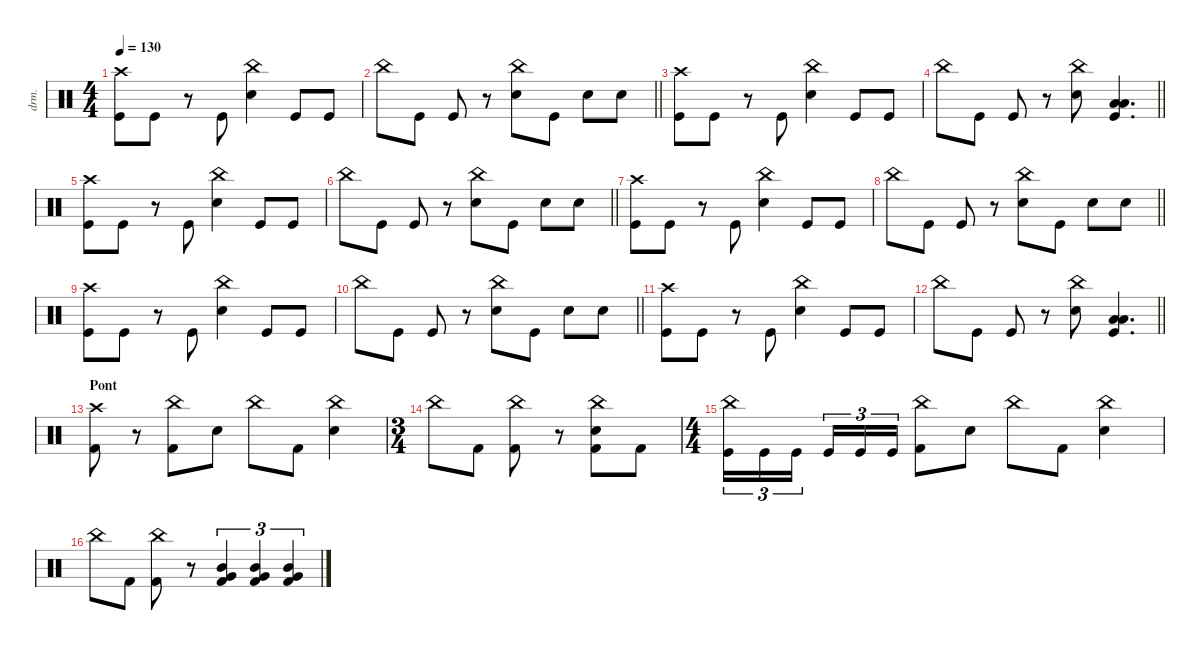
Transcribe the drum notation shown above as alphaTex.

\defaultSystemsLayout 4
\hideDynamics
\bracketExtendMode nobrackets
\otherSystemsTrackNameOrientation horizontal
\track ("Manouche" "drm.") {instrument percussion}
\staff {score}
\articulation defaults
\ts (4 4)
\tempo 130
\clef neutral
\ks c
("Crash high (hit)" "Kick (hit)").8{dy f beam Down} "Kick (hit)".8{beam Down} r.8{beam Down} "Kick (hit)".8{beam Up} ("China (hit)" "Snare (hit) 2").4{beam Down} "Kick (hit)".8{beam Up} "Kick (hit)".8{beam Up} |
\barLineRight lightlight "China (hit)".8{beam Down} "Kick (hit)".8{beam Down} "Kick (hit)".8{beam Up}
r.8{beam Up} ("China (hit)" "Snare (hit) 2").8{beam Down} "Kick (hit)".8{beam Down} "Snare (hit) 2".8{beam Down} "Snare (hit) 2".8{beam Down} |
("Crash high (hit)" "Kick (hit)").8{beam Down} "Kick (hit)".8{beam Down} r.8{beam Down} "Kick (hit)".8{beam Up} ("China (hit)" "Snare (hit) 2").4{beam Down} "Kick (hit)".8{beam Up} "Kick (hit)".8{beam Up} |
\barLineRight lightlight "China (hit)".8{beam Down} "Kick (hit)".8{beam Down} "Kick (hit)".8{beam Up}
r.8{beam Up} ("China (hit)" "Snare (hit) 2").8{beam Down} ("Low Tom (hit)" "Kick (hit)" "Low Floor Tom (hit)").4{d dy ff beam Up} |
("Crash high (hit)" "Kick (hit)").8{dy f beam Down} "Kick (hit)".8{beam Down} r.8{beam Down} "Kick (hit)".8{beam Up} ("China (hit)" "Snare (hit) 2").4{beam Down} "Kick (hit)".8{beam Up} "Kick (hit)".8{beam Up} |
\barLineRight lightlight "China (hit)".8{beam Down} "Kick (hit)".8{beam Down} "Kick (hit)".8{beam Up}
r.8{beam Up} ("China (hit)" "Snare (hit) 2").8{beam Down} "Kick (hit)".8{beam Down} "Snare (hit) 2".8{beam Down} "Snare (hit) 2".8{beam Down} |
("Crash high (hit)" "Kick (hit)").8{beam Down} "Kick (hit)".8{beam Down} r.8{beam Down} "Kick (hit)".8{beam Up} ("China (hit)" "Snare (hit) 2").4{beam Down} "Kick (hit)".8{beam Up} "Kick (hit)".8{beam Up} |
\barLineRight lightlight "China (hit)".8{beam Down} "Kick (hit)".8{beam Down} "Kick (hit)".8{beam Up}
r.8{beam Up} ("China (hit)" "Snare (hit) 2").8{beam Down} "Kick (hit)".8{beam Down} "Snare (hit) 2".8{beam Down} "Snare (hit) 2".8{beam Down} |
("Crash high (hit)" "Kick (hit)").8{beam Down} "Kick (hit)".8{beam Down} r.8{beam Down} "Kick (hit)".8{beam Up} ("China (hit)" "Snare (hit) 2").4{beam Down} "Kick (hit)".8{beam Up} "Kick (hit)".8{beam Up} |
\barLineRight lightlight "China (hit)".8{beam Down} "Kick (hit)".8{beam Down} "Kick (hit)".8{beam Up}
r.8{beam Up} ("China (hit)" "Snare (hit) 2").8{beam Down} "Kick (hit)".8{beam Down} "Snare (hit) 2".8{beam Down} "Snare (hit) 2".8{beam Down} |
("Crash high (hit)" "Kick (hit)").8{beam Down} "Kick (hit)".8{beam Down} r.8{beam Down} "Kick (hit)".8{beam Up} ("China (hit)" "Snare (hit) 2").4{beam Down} "Kick (hit)".8{beam Up} "Kick (hit)".8{beam Up} |
\barLineRight lightlight "China (hit)".8{beam Down} "Kick (hit)".8{beam Down} "Kick (hit)".8{beam Up}
r.8{beam Up} ("China (hit)" "Snare (hit) 2").8{beam Down} ("Low Tom (hit)" "Kick (hit)" "Low Floor Tom (hit)").4{d dy ff beam Up} |
\section ("" "Pont")
("Crash high (hit)" "Kick (hit) 2").8{dy f beam Down} r.8{beam Down} ("China (hit)" "Kick (hit) 2").8{beam Down} "Snare (hit) 2".8{beam Down} "China (hit)".8{beam Down} "Kick (hit) 2".8{beam Down} ("China (hit)" "Snare (hit) 2").4{beam Down} |
\ts (3 4)
\beaming (8 2 2 2)
"China (hit)".8{beam Down} "Kick (hit) 2".8{beam Down} ("China (hit)" "Kick (hit) 2").8{beam Down} r.8{beam Down} ("China (hit)" "Snare (hit) 2" "Kick (hit) 2").8{beam Down} "Kick (hit) 2".8{beam Down} |
\ts (4 4)
\beaming (8 2 2 2 2)
("Kick (hit)" "China (hit)").16{tu (3 2) beam Down} "Kick (hit)".16{tu (3 2) beam Down} "Kick (hit)".16{tu (3 2) beam Down} "Kick (hit)".16{tu (3 2) beam Up} "Kick (hit)".16{tu (3 2) beam Up} "Kick (hit)".16{tu (3 2) beam Up} ("China (hit)" "Kick (hit) 2").8{beam Down} "Snare (hit) 2".8{beam Down} "China (hit)".8{beam Down} "Kick (hit) 2".8{beam Down} ("China (hit)" "Snare (hit) 2").4{beam Down} |
"China (hit)".8{beam Down} "Kick (hit) 2".8{beam Down} ("Kick (hit) 2" "China (hit)").8{beam Down} r.8{beam Down} ("Kick (hit) 2" "Mid Tom (hit)" "Very Low Tom (hit)").4{tu (3 2) beam Up} ("Kick (hit) 2" "Mid Tom (hit)" "Very Low Tom (hit)").4{tu (3 2) beam Up} ("Kick (hit) 2" "Mid Tom (hit)" "Very Low Tom (hit)").4{tu (3 2) beam Up}
